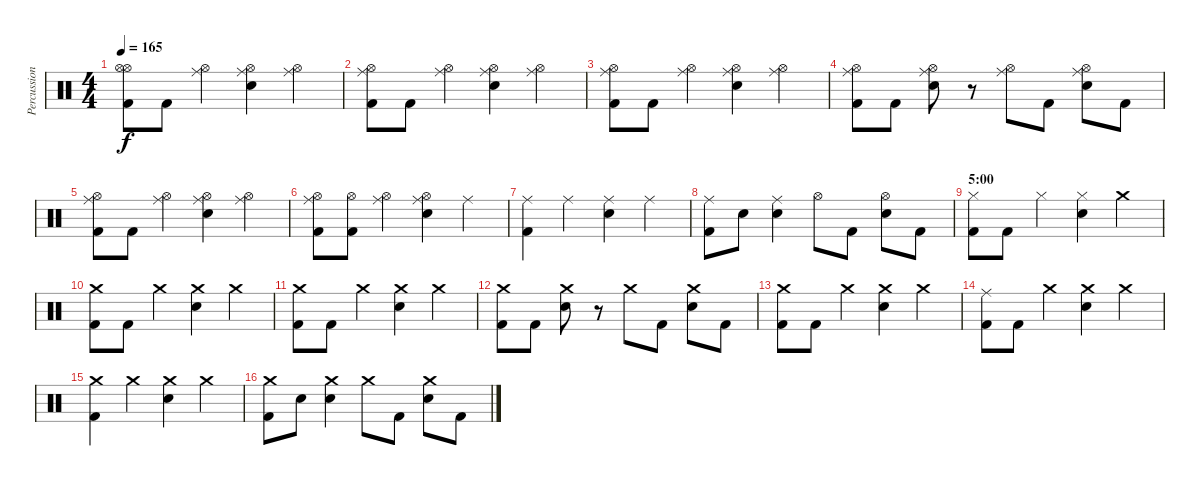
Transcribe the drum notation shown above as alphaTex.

\track ("Percussion" "Percussion") {instrument percussion}
\staff {score}
\articulation defaults
\ts (4 4)
\section ("" "")
\tempo 165
\clef neutral
\ks c
("Hi-Hat (open)" "Hi-Hat (open)" "Kick (hit) 2").8{dy f} "Kick (hit) 2".8 ("Ride (middle)" "Hi-Hat (open)").4 ("Ride (middle)" "Hi-Hat (open)" "Electric Snare (hit)").4 ("Ride (middle)" "Hi-Hat (open)").4 |
("Ride (middle)" "Hi-Hat (open)" "Kick (hit) 2").8 "Kick (hit) 2".8 ("Ride (middle)" "Hi-Hat (open)").4 ("Ride (middle)" "Hi-Hat (open)" "Electric Snare (hit)").4 ("Ride (middle)" "Hi-Hat (open)").4 |
("Ride (middle)" "Hi-Hat (open)" "Kick (hit) 2").8 "Kick (hit) 2".8 ("Ride (middle)" "Hi-Hat (open)").4 ("Ride (middle)" "Hi-Hat (open)" "Electric Snare (hit)").4 ("Ride (middle)" "Hi-Hat (open)").4 |
("Ride (middle)" "Hi-Hat (open)" "Kick (hit) 2").8 "Kick (hit) 2".8 ("Ride (middle)" "Hi-Hat (open)" "Electric Snare (hit)").8 r.8 ("Ride (middle)" "Hi-Hat (open)").8 "Kick (hit) 2".8 ("Ride (middle)" "Hi-Hat (open)" "Electric Snare (hit)").8 "Kick (hit) 2".8 |
("Ride (middle)" "Hi-Hat (open)" "Kick (hit) 2").8 "Kick (hit) 2".8 ("Ride (middle)" "Hi-Hat (open)").4 ("Ride (middle)" "Hi-Hat (open)" "Electric Snare (hit)").4 ("Ride (middle)" "Hi-Hat (open)").4 |
("Ride (middle)" "Hi-Hat (open)" "Kick (hit) 2").8 ("Hi-Hat (open)" "Kick (hit) 2").8 ("Ride (middle)" "Hi-Hat (open)").4 ("Ride (middle)" "Hi-Hat (open)" "Electric Snare (hit)").4 "Ride (middle)".4 |
("Ride (middle)" "Kick (hit) 2").4 "Ride (middle)".4 ("Ride (middle)" "Electric Snare (hit)").4 "Ride (middle)".4 |
("Ride (middle)" "Kick (hit) 2").8 "Electric Snare (hit)".8 ("Ride (middle)" "Electric Snare (hit)").4 "Hi-Hat (open)".8 "Kick (hit) 2".8 ("Hi-Hat (open)" "Electric Snare (hit)").8 "Kick (hit) 2".8 |
\section ("" "5:00")
("Hi-Hat (closed)" "Kick (hit) 2").8 "Kick (hit) 2".8 "Hi-Hat (closed)".4 ("Hi-Hat (closed)" "Electric Snare (hit)").4 "Crash medium (hit)".4 |
("Crash medium (hit)" "Kick (hit) 2").8 "Kick (hit) 2".8 "Crash medium (hit)".4 ("Crash medium (hit)" "Electric Snare (hit)").4 "Crash medium (hit)".4 |
("Crash medium (hit)" "Kick (hit) 2").8 "Kick (hit) 2".8 "Crash medium (hit)".4 ("Crash medium (hit)" "Electric Snare (hit)").4 "Crash medium (hit)".4 |
("Crash medium (hit)" "Kick (hit) 2").8 "Kick (hit) 2".8 ("Crash medium (hit)" "Electric Snare (hit)").8 r.8 "Crash medium (hit)".8 "Kick (hit) 2".8 ("Crash medium (hit)" "Electric Snare (hit)").8 "Kick (hit) 2".8 |
("Crash medium (hit)" "Kick (hit) 2").8 "Kick (hit) 2".8 "Crash medium (hit)".4 ("Crash medium (hit)" "Electric Snare (hit)").4 "Crash medium (hit)".4 |
("Ride (middle)" "Kick (hit) 2").8 "Kick (hit) 2".8 "Crash medium (hit)".4 ("Crash medium (hit)" "Electric Snare (hit)").4 "Crash medium (hit)".4 |
("Crash medium (hit)" "Kick (hit) 2").4 "Crash medium (hit)".4 ("Crash medium (hit)" "Electric Snare (hit)").4 "Crash medium (hit)".4 |
("Crash medium (hit)" "Kick (hit) 2").8 "Electric Snare (hit)".8 ("Crash medium (hit)" "Electric Snare (hit)").4 "Crash medium (hit)".8 "Kick (hit) 2".8 ("Crash medium (hit)" "Electric Snare (hit)").8 "Kick (hit) 2".8
